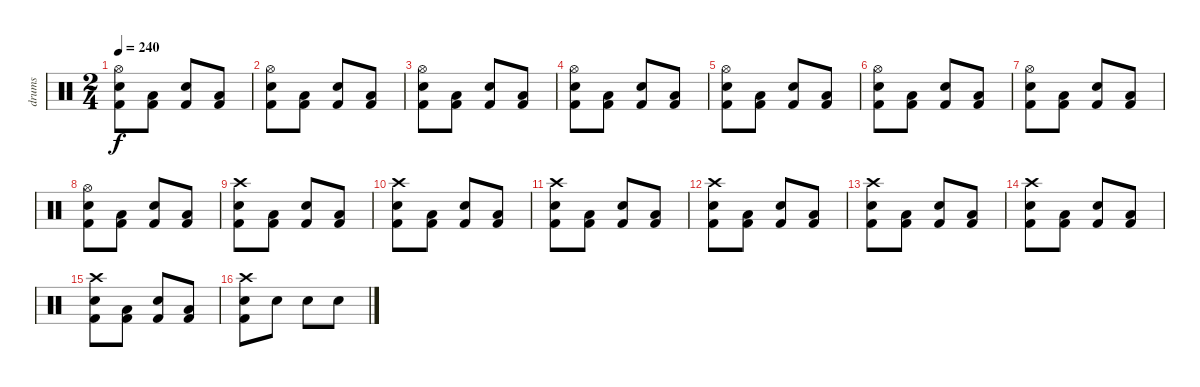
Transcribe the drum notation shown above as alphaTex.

\track ("drums" "drums") {instrument percussion}
\staff {score}
\articulation defaults
\ts (2 4)
\tempo 240
\clef neutral
\ks c
("Hi-Hat (open)" "Snare (hit) 2" "Kick (hit) 2").8{dy f} ("Low Tom (hit)" "Kick (hit) 2").8 ("Snare (hit) 2" "Kick (hit) 2").8 ("Low Tom (hit)" "Kick (hit) 2").8 |
("Hi-Hat (open)" "Snare (hit) 2" "Kick (hit) 2").8 ("Low Tom (hit)" "Kick (hit) 2").8 ("Snare (hit) 2" "Kick (hit) 2").8 ("Low Tom (hit)" "Kick (hit) 2").8 |
("Hi-Hat (open)" "Snare (hit) 2" "Kick (hit) 2").8 ("Low Tom (hit)" "Kick (hit) 2").8 ("Snare (hit) 2" "Kick (hit) 2").8 ("Low Tom (hit)" "Kick (hit) 2").8 |
("Hi-Hat (open)" "Snare (hit) 2" "Kick (hit) 2").8 ("Low Tom (hit)" "Kick (hit) 2").8 ("Snare (hit) 2" "Kick (hit) 2").8 ("Low Tom (hit)" "Kick (hit) 2").8 |
("Hi-Hat (open)" "Snare (hit) 2" "Kick (hit) 2").8 ("Low Tom (hit)" "Kick (hit) 2").8 ("Snare (hit) 2" "Kick (hit) 2").8 ("Low Tom (hit)" "Kick (hit) 2").8 |
("Hi-Hat (open)" "Snare (hit) 2" "Kick (hit) 2").8 ("Low Tom (hit)" "Kick (hit) 2").8 ("Snare (hit) 2" "Kick (hit) 2").8 ("Low Tom (hit)" "Kick (hit) 2").8 |
("Hi-Hat (open)" "Snare (hit) 2" "Kick (hit) 2").8 ("Low Tom (hit)" "Kick (hit) 2").8 ("Snare (hit) 2" "Kick (hit) 2").8 ("Low Tom (hit)" "Kick (hit) 2").8 |
("Hi-Hat (open)" "Snare (hit) 2" "Kick (hit) 2").8 ("Low Tom (hit)" "Kick (hit) 2").8 ("Snare (hit) 2" "Kick (hit) 2").8 ("Low Tom (hit)" "Kick (hit) 2").8 |
("Crash high (hit)" "Snare (hit) 2" "Kick (hit) 2").8 ("Low Tom (hit)" "Kick (hit) 2").8 ("Snare (hit) 2" "Kick (hit) 2").8 ("Low Tom (hit)" "Kick (hit) 2").8 |
("Crash high (hit)" "Snare (hit) 2" "Kick (hit) 2").8 ("Low Tom (hit)" "Kick (hit) 2").8 ("Snare (hit) 2" "Kick (hit) 2").8 ("Low Tom (hit)" "Kick (hit) 2").8 |
("Crash high (hit)" "Snare (hit) 2" "Kick (hit) 2").8 ("Low Tom (hit)" "Kick (hit) 2").8 ("Snare (hit) 2" "Kick (hit) 2").8 ("Low Tom (hit)" "Kick (hit) 2").8 |
("Crash high (hit)" "Snare (hit) 2" "Kick (hit) 2").8 ("Low Tom (hit)" "Kick (hit) 2").8 ("Snare (hit) 2" "Kick (hit) 2").8 ("Low Tom (hit)" "Kick (hit) 2").8 |
("Crash high (hit)" "Snare (hit) 2" "Kick (hit) 2").8 ("Low Tom (hit)" "Kick (hit) 2").8 ("Snare (hit) 2" "Kick (hit) 2").8 ("Low Tom (hit)" "Kick (hit) 2").8 |
("Crash high (hit)" "Snare (hit) 2" "Kick (hit) 2").8 ("Low Tom (hit)" "Kick (hit) 2").8 ("Snare (hit) 2" "Kick (hit) 2").8 ("Low Tom (hit)" "Kick (hit) 2").8 |
("Crash high (hit)" "Snare (hit) 2" "Kick (hit) 2").8 ("Low Tom (hit)" "Kick (hit) 2").8 ("Snare (hit) 2" "Kick (hit) 2").8 ("Low Tom (hit)" "Kick (hit) 2").8 |
("Crash high (hit)" "Snare (hit) 2" "Kick (hit) 2").8 "Electric Snare (hit)".8 "Electric Snare (hit)".8 "Electric Snare (hit)".8
